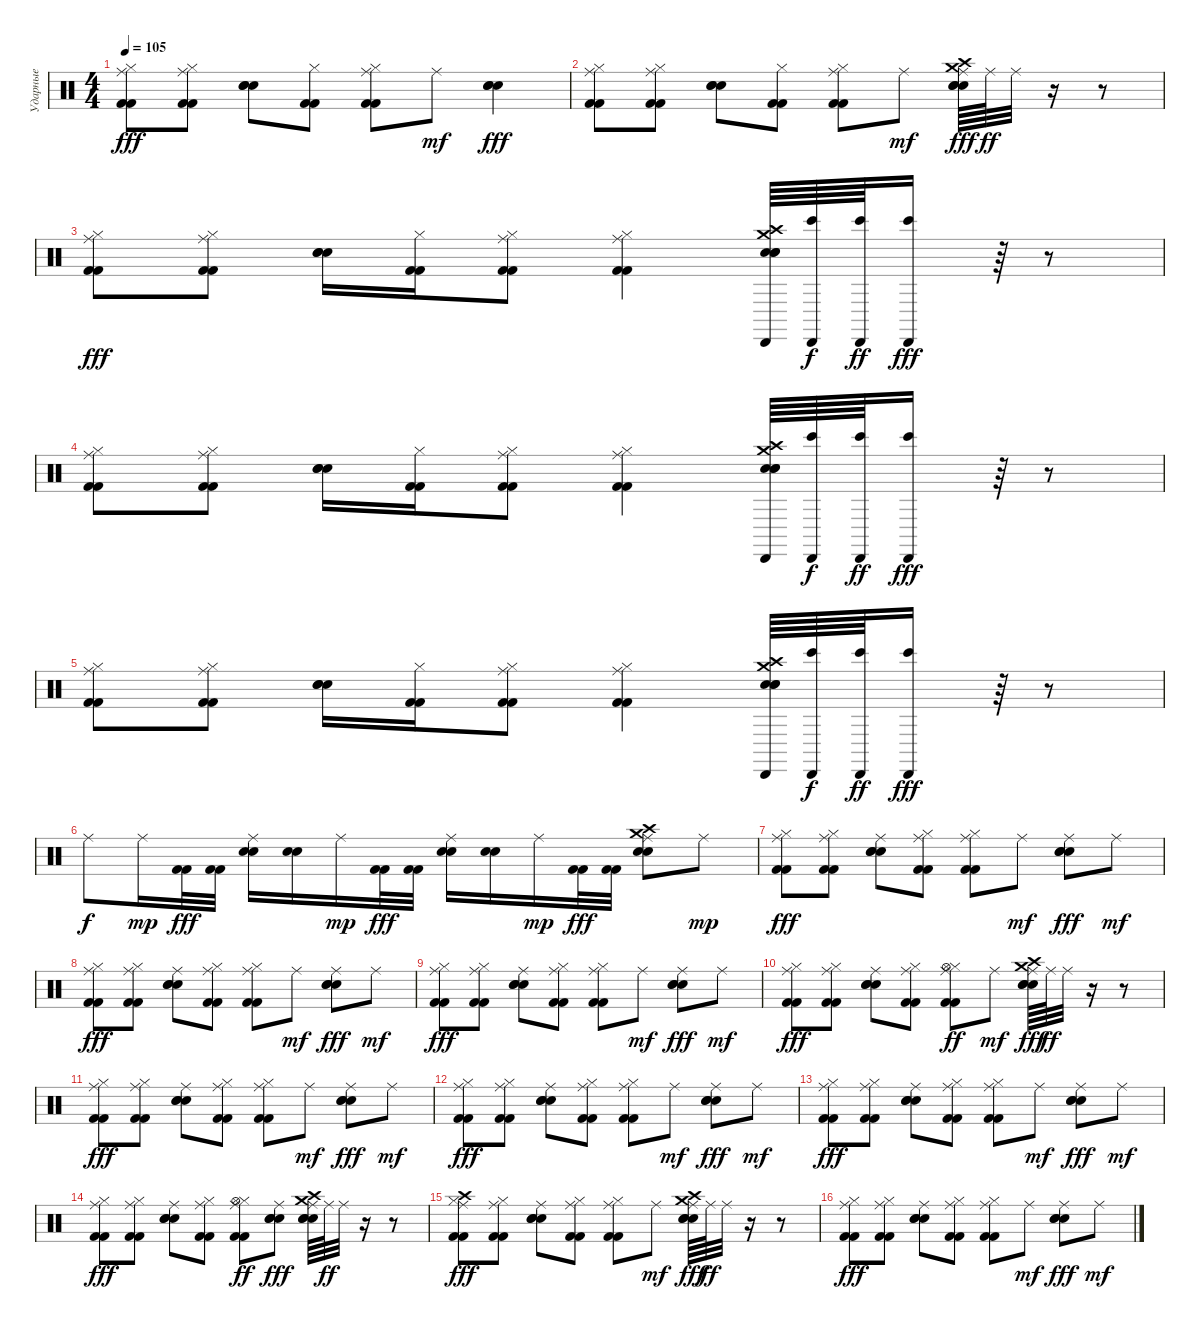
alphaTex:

\track ("Ударные" "Ударные") {instrument percussion}
\staff {score}
\articulation defaults
\ts (4 4)
\tempo 105
\clef neutral
\ks c
("Ride (middle)" "Hi-Hat (closed)" "Kick (hit) 2" "Kick (hit) 2").8{dy fff} ("Ride (middle)" "Hi-Hat (closed)" "Kick (hit) 2" "Kick (hit) 2").8 ("Snare (hit) 2" "Electric Snare (hit)" "Hand Clap (hit)").8 ("Hi-Hat (closed)" "Kick (hit) 2" "Kick (hit) 2").8 ("Ride (middle)" "Hi-Hat (closed)" "Kick (hit) 2" "Kick (hit) 2").8 "Ride (middle)".8{dy mf} ("Snare (hit) 2" "Electric Snare (hit)" "Hand Clap (hit)").4{dy fff} |
("Ride (middle)" "Hi-Hat (closed)" "Kick (hit) 2" "Kick (hit) 2").8 ("Ride (middle)" "Hi-Hat (closed)" "Kick (hit) 2" "Kick (hit) 2").8 ("Snare (hit) 2" "Electric Snare (hit)" "Hand Clap (hit)").8 ("Hi-Hat (closed)" "Kick (hit) 2" "Kick (hit) 2").8 ("Ride (middle)" "Hi-Hat (closed)" "Kick (hit) 2" "Kick (hit) 2").8 "Ride (middle)".8{dy mf} ("Ride (middle)" "Crash medium (hit)" "Snare (hit) 2" "Crash high (hit)" "Electric Snare (hit)" "Hand Clap (hit)").64{dy fff} "Ride (middle)".64{dy ff} "Ride (middle)".32 r.16 r.8 |
("Ride (middle)" "Hi-Hat (closed)" "Kick (hit) 2" "Kick (hit) 2").8{dy fff} ("Ride (middle)" "Hi-Hat (closed)" "Kick (hit) 2" "Kick (hit) 2").8 ("Snare (hit) 2" "Electric Snare (hit)" "Hand Clap (hit)").16 ("Hi-Hat (closed)" "Kick (hit) 2" "Kick (hit) 2").16 ("Ride (middle)" "Hi-Hat (closed)" "Kick (hit) 2" "Kick (hit) 2").8 ("Ride (middle)" "Hi-Hat (closed)" "Kick (hit) 2" "Kick (hit) 2").4 ("Cabasa (hit)" "Crash high (hit)" "Snare (hit) 2" "Crash medium (hit)" "Electric Snare (hit)" "Hand Clap (hit)").64 ("Cabasa (hit)" "Bongo High (hit)").64{dy f} ("Cabasa (hit)" "Bongo High (hit)").64{dy ff} ("Cabasa (hit)" "Bongo High (hit)").16{dy fff} r.64 r.8 |
("Ride (middle)" "Hi-Hat (closed)" "Kick (hit) 2" "Kick (hit) 2").8 ("Ride (middle)" "Hi-Hat (closed)" "Kick (hit) 2" "Kick (hit) 2").8 ("Snare (hit) 2" "Electric Snare (hit)" "Hand Clap (hit)").16 ("Hi-Hat (closed)" "Kick (hit) 2" "Kick (hit) 2").16 ("Ride (middle)" "Hi-Hat (closed)" "Kick (hit) 2" "Kick (hit) 2").8 ("Ride (middle)" "Hi-Hat (closed)" "Kick (hit) 2" "Kick (hit) 2").4 ("Cabasa (hit)" "Crash high (hit)" "Snare (hit) 2" "Crash medium (hit)" "Electric Snare (hit)" "Hand Clap (hit)").64 ("Cabasa (hit)" "Bongo High (hit)").64{dy f} ("Cabasa (hit)" "Bongo High (hit)").64{dy ff} ("Cabasa (hit)" "Bongo High (hit)").16{dy fff} r.64 r.8 |
("Ride (middle)" "Hi-Hat (closed)" "Kick (hit) 2" "Kick (hit) 2").8 ("Ride (middle)" "Hi-Hat (closed)" "Kick (hit) 2" "Kick (hit) 2").8 ("Snare (hit) 2" "Electric Snare (hit)" "Hand Clap (hit)").16 ("Hi-Hat (closed)" "Kick (hit) 2" "Kick (hit) 2").16 ("Ride (middle)" "Hi-Hat (closed)" "Kick (hit) 2" "Kick (hit) 2").8 ("Ride (middle)" "Hi-Hat (closed)" "Kick (hit) 2" "Kick (hit) 2").4 ("Cabasa (hit)" "Crash high (hit)" "Snare (hit) 2" "Crash medium (hit)" "Electric Snare (hit)" "Hand Clap (hit)").64 ("Cabasa (hit)" "Bongo High (hit)").64{dy f} ("Cabasa (hit)" "Bongo High (hit)").64{dy ff} ("Cabasa (hit)" "Bongo High (hit)").16{dy fff} r.64 r.8 |
"Ride (middle)".8{dy f} "Ride (middle)".16{dy mp} ("Kick (hit) 2" "Kick (hit) 2").32{dy fff} ("Kick (hit) 2" "Kick (hit) 2").32 ("Ride (middle)" "Snare (hit) 2" "Electric Snare (hit)").16 ("Snare (hit) 2" "Electric Snare (hit)").16 "Ride (middle)".16{dy mp} ("Kick (hit) 2" "Kick (hit) 2").32{dy fff} ("Kick (hit) 2" "Kick (hit) 2").32 ("Ride (middle)" "Snare (hit) 2" "Electric Snare (hit)").16 ("Snare (hit) 2" "Electric Snare (hit)").16 "Ride (middle)".16{dy mp} ("Kick (hit) 2" "Kick (hit) 2").32{dy fff} ("Kick (hit) 2" "Kick (hit) 2").32 ("Ride (middle)" "Snare (hit) 2" "Electric Snare (hit)" "Crash high (hit)" "Crash medium (hit)").8 "Ride (middle)".8{dy mp} |
("Ride (middle)" "Hi-Hat (closed)" "Kick (hit) 2" "Kick (hit) 2").8{dy fff} ("Ride (middle)" "Hi-Hat (closed)" "Kick (hit) 2" "Kick (hit) 2").8 ("Ride (middle)" "Snare (hit) 2" "Electric Snare (hit)" "Hand Clap (hit)").8 ("Ride (middle)" "Hi-Hat (closed)" "Kick (hit) 2" "Kick (hit) 2").8 ("Ride (middle)" "Hi-Hat (closed)" "Kick (hit) 2" "Kick (hit) 2").8 "Ride (middle)".8{dy mf} ("Ride (middle)" "Snare (hit) 2" "Electric Snare (hit)" "Hand Clap (hit)").8{dy fff} "Ride (middle)".8{dy mf} |
("Ride (middle)" "Hi-Hat (closed)" "Kick (hit) 2" "Kick (hit) 2").8{dy fff} ("Ride (middle)" "Hi-Hat (closed)" "Kick (hit) 2" "Kick (hit) 2").8 ("Ride (middle)" "Snare (hit) 2" "Electric Snare (hit)" "Hand Clap (hit)").8 ("Ride (middle)" "Hi-Hat (closed)" "Kick (hit) 2" "Kick (hit) 2").8 ("Ride (middle)" "Hi-Hat (closed)" "Kick (hit) 2" "Kick (hit) 2").8 "Ride (middle)".8{dy mf} ("Ride (middle)" "Snare (hit) 2" "Electric Snare (hit)" "Hand Clap (hit)").8{dy fff} "Ride (middle)".8{dy mf} |
("Ride (middle)" "Hi-Hat (closed)" "Kick (hit) 2" "Kick (hit) 2").8{dy fff} ("Ride (middle)" "Hi-Hat (closed)" "Kick (hit) 2" "Kick (hit) 2").8 ("Ride (middle)" "Snare (hit) 2" "Electric Snare (hit)" "Hand Clap (hit)").8 ("Ride (middle)" "Hi-Hat (closed)" "Kick (hit) 2" "Kick (hit) 2").8 ("Ride (middle)" "Hi-Hat (closed)" "Kick (hit) 2" "Kick (hit) 2").8 "Ride (middle)".8{dy mf} ("Ride (middle)" "Snare (hit) 2" "Electric Snare (hit)" "Hand Clap (hit)").8{dy fff} "Ride (middle)".8{dy mf} |
("Ride (middle)" "Hi-Hat (closed)" "Kick (hit) 2" "Kick (hit) 2").8{dy fff} ("Ride (middle)" "Hi-Hat (closed)" "Kick (hit) 2" "Kick (hit) 2").8 ("Ride (middle)" "Snare (hit) 2" "Electric Snare (hit)" "Hand Clap (hit)").8 ("Ride (middle)" "Hi-Hat (closed)" "Kick (hit) 2" "Kick (hit) 2").8 ("Ride (middle)" "Hi-Hat (closed)" "Kick (hit) 2" "Kick (hit) 2" "Hi-Hat (open)").8{dy ff} "Ride (middle)".8{dy mf} ("Ride (middle)" "Crash medium (hit)" "Snare (hit) 2" "Crash high (hit)" "Electric Snare (hit)" "Hand Clap (hit)").64{dy fff} "Ride (middle)".64{dy ff} "Ride (middle)".32 r.16 r.8 |
("Ride (middle)" "Hi-Hat (closed)" "Kick (hit) 2" "Kick (hit) 2").8{dy fff} ("Ride (middle)" "Hi-Hat (closed)" "Kick (hit) 2" "Kick (hit) 2").8 ("Ride (middle)" "Snare (hit) 2" "Electric Snare (hit)" "Hand Clap (hit)").8 ("Ride (middle)" "Hi-Hat (closed)" "Kick (hit) 2" "Kick (hit) 2").8 ("Ride (middle)" "Hi-Hat (closed)" "Kick (hit) 2" "Kick (hit) 2").8 "Ride (middle)".8{dy mf} ("Ride (middle)" "Snare (hit) 2" "Electric Snare (hit)" "Hand Clap (hit)").8{dy fff} "Ride (middle)".8{dy mf} |
("Ride (middle)" "Hi-Hat (closed)" "Kick (hit) 2" "Kick (hit) 2").8{dy fff} ("Ride (middle)" "Hi-Hat (closed)" "Kick (hit) 2" "Kick (hit) 2").8 ("Ride (middle)" "Snare (hit) 2" "Electric Snare (hit)" "Hand Clap (hit)").8 ("Ride (middle)" "Hi-Hat (closed)" "Kick (hit) 2" "Kick (hit) 2").8 ("Ride (middle)" "Hi-Hat (closed)" "Kick (hit) 2" "Kick (hit) 2").8 "Ride (middle)".8{dy mf} ("Ride (middle)" "Snare (hit) 2" "Electric Snare (hit)" "Hand Clap (hit)").8{dy fff} "Ride (middle)".8{dy mf} |
("Ride (middle)" "Hi-Hat (closed)" "Kick (hit) 2" "Kick (hit) 2").8{dy fff} ("Ride (middle)" "Hi-Hat (closed)" "Kick (hit) 2" "Kick (hit) 2").8 ("Ride (middle)" "Snare (hit) 2" "Electric Snare (hit)" "Hand Clap (hit)").8 ("Ride (middle)" "Hi-Hat (closed)" "Kick (hit) 2" "Kick (hit) 2").8 ("Ride (middle)" "Hi-Hat (closed)" "Kick (hit) 2" "Kick (hit) 2").8 "Ride (middle)".8{dy mf} ("Ride (middle)" "Snare (hit) 2" "Electric Snare (hit)" "Hand Clap (hit)").8{dy fff} "Ride (middle)".8{dy mf} |
("Ride (middle)" "Hi-Hat (closed)" "Kick (hit) 2" "Kick (hit) 2").8{dy fff} ("Ride (middle)" "Hi-Hat (closed)" "Kick (hit) 2" "Kick (hit) 2").8 ("Ride (middle)" "Snare (hit) 2" "Electric Snare (hit)" "Hand Clap (hit)").8 ("Ride (middle)" "Hi-Hat (closed)" "Kick (hit) 2" "Kick (hit) 2").8 ("Ride (middle)" "Hi-Hat (closed)" "Kick (hit) 2" "Kick (hit) 2" "Hi-Hat (open)").8{dy ff} ("Ride (middle)" "Snare (hit) 2" "Electric Snare (hit)" "Hand Clap (hit)").8{dy fff} ("Ride (middle)" "Crash medium (hit)" "Snare (hit) 2" "Crash high (hit)" "Electric Snare (hit)" "Hand Clap (hit)").64 "Ride (middle)".64{dy ff} "Ride (middle)".32 r.16 r.8 |
("Ride (middle)" "Hi-Hat (closed)" "Kick (hit) 2" "Kick (hit) 2" "Crash high (hit)").8{dy fff} ("Ride (middle)" "Hi-Hat (closed)" "Kick (hit) 2" "Kick (hit) 2").8 ("Ride (middle)" "Snare (hit) 2" "Electric Snare (hit)" "Hand Clap (hit)").8 ("Ride (middle)" "Hi-Hat (closed)" "Kick (hit) 2" "Kick (hit) 2").8 ("Ride (middle)" "Hi-Hat (closed)" "Kick (hit) 2" "Kick (hit) 2").8 "Ride (middle)".8{dy mf} ("Ride (middle)" "Crash medium (hit)" "Snare (hit) 2" "Crash high (hit)" "Electric Snare (hit)" "Hand Clap (hit)").64{dy fff} "Ride (middle)".64{dy ff} "Ride (middle)".32 r.16 r.8 |
("Ride (middle)" "Hi-Hat (closed)" "Kick (hit) 2" "Kick (hit) 2").8{dy fff} ("Ride (middle)" "Hi-Hat (closed)" "Kick (hit) 2" "Kick (hit) 2").8 ("Ride (middle)" "Snare (hit) 2" "Electric Snare (hit)" "Hand Clap (hit)").8 ("Ride (middle)" "Hi-Hat (closed)" "Kick (hit) 2" "Kick (hit) 2").8 ("Ride (middle)" "Hi-Hat (closed)" "Kick (hit) 2" "Kick (hit) 2").8 "Ride (middle)".8{dy mf} ("Ride (middle)" "Snare (hit) 2" "Electric Snare (hit)" "Hand Clap (hit)").8{dy fff} "Ride (middle)".8{dy mf}
